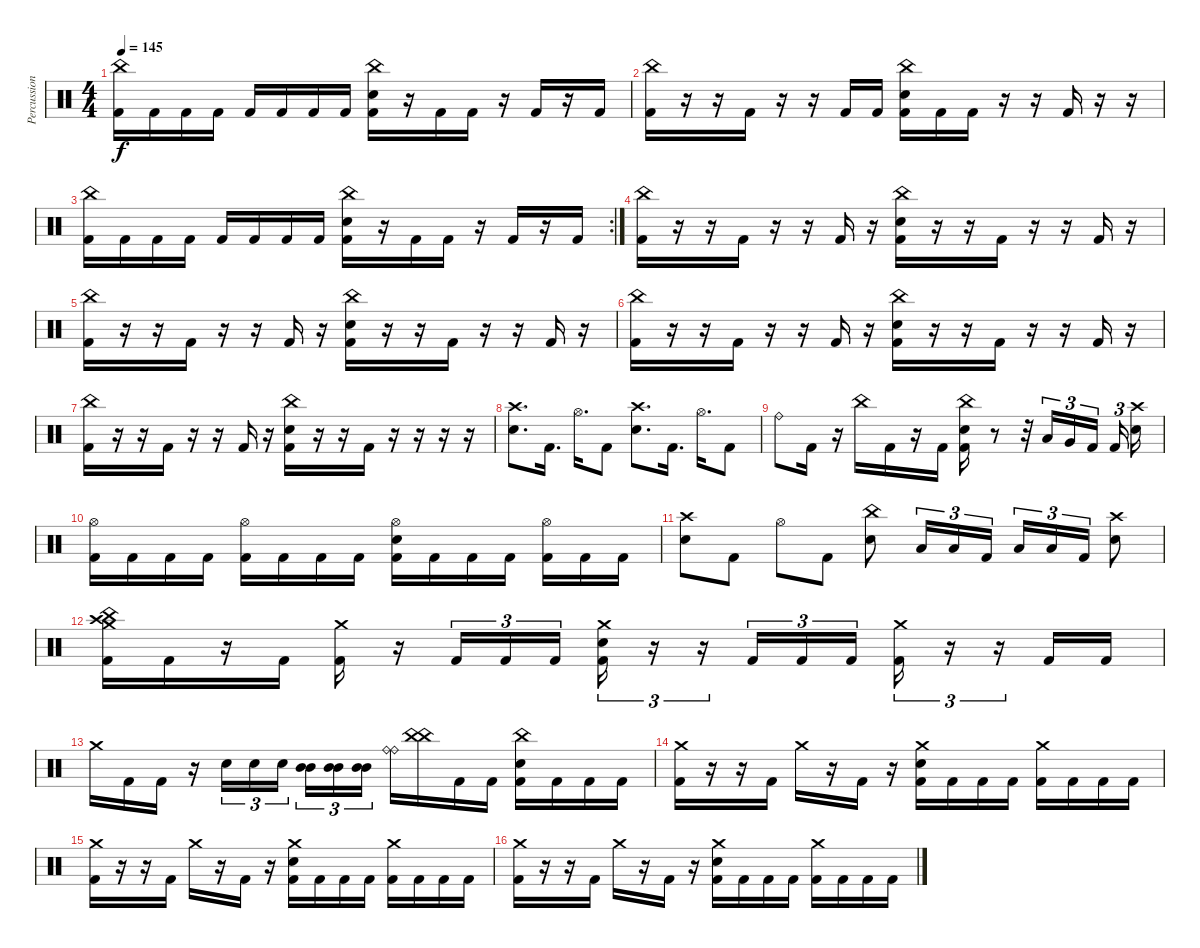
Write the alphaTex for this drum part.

\track ("Percussion" "Percussion") {instrument percussion}
\staff {score}
\articulation defaults
\ts (4 4)
\tempo 145
\clef neutral
\ks c
("China (hit)" "Kick (hit) 2").16{dy f} "Kick (hit) 2".16 "Kick (hit) 2".16 "Kick (hit) 2".16 "Kick (hit) 2".16 "Kick (hit) 2".16 "Kick (hit) 2".16 "Kick (hit) 2".16 ("China (hit)" "Electric Snare (hit)" "Kick (hit) 2").16 r.16 "Kick (hit) 2".16 "Kick (hit) 2".16 r.16 "Kick (hit) 2".16 r.16 "Kick (hit) 2".16 |
("China (hit)" "Kick (hit) 2").16 r.16 r.16 "Kick (hit) 2".16 r.16 r.16 "Kick (hit) 2".16 "Kick (hit) 2".16 ("China (hit)" "Electric Snare (hit)" "Kick (hit) 2").16 "Kick (hit) 2".16 "Kick (hit) 2".16 r.16 r.16 "Kick (hit) 2".16 r.16 r.16 |
\rc 2
("China (hit)" "Kick (hit) 2").16 "Kick (hit) 2".16 "Kick (hit) 2".16 "Kick (hit) 2".16 "Kick (hit) 2".16 "Kick (hit) 2".16 "Kick (hit) 2".16 "Kick (hit) 2".16 ("China (hit)" "Electric Snare (hit)" "Kick (hit) 2").16 r.16 "Kick (hit) 2".16 "Kick (hit) 2".16 r.16 "Kick (hit) 2".16 r.16 "Kick (hit) 2".16 |
("China (hit)" "Kick (hit) 2").16 r.16 r.16 "Kick (hit) 2".16 r.16 r.16 "Kick (hit) 2".16 r.16 ("China (hit)" "Electric Snare (hit)" "Kick (hit) 2").16 r.16 r.16 "Kick (hit) 2".16 r.16 r.16 "Kick (hit) 2".16 r.16 |
("China (hit)" "Kick (hit) 2").16 r.16 r.16 "Kick (hit) 2".16 r.16 r.16 "Kick (hit) 2".16 r.16 ("China (hit)" "Electric Snare (hit)" "Kick (hit) 2").16 r.16 r.16 "Kick (hit) 2".16 r.16 r.16 "Kick (hit) 2".16 r.16 |
("China (hit)" "Kick (hit) 2").16 r.16 r.16 "Kick (hit) 2".16 r.16 r.16 "Kick (hit) 2".16 r.16 ("China (hit)" "Electric Snare (hit)" "Kick (hit) 2").16 r.16 r.16 "Kick (hit) 2".16 r.16 r.16 "Kick (hit) 2".16 r.16 |
("China (hit)" "Kick (hit) 2").16 r.16 r.16 "Kick (hit) 2".16 r.16 r.16 "Kick (hit) 2".16 r.16 ("China (hit)" "Electric Snare (hit)" "Kick (hit) 2").16 r.16 r.16 "Kick (hit) 2".16 r.16 r.16 r.16 r.16 |
("Crash high (hit)" "Electric Snare (hit)").8{d} "Kick (hit) 2".16{d} "Hi-Hat (open)".16{d} "Kick (hit) 2".8 ("Crash high (hit)" "Electric Snare (hit)").8{d} "Kick (hit) 2".16{d} "Hi-Hat (open)".16{d} "Kick (hit) 2".8 |
"Ride (bell)".8 "Kick (hit) 2".16 r.16 "China (hit)".16 "Kick (hit) 2".16 r.16 "Kick (hit) 2".16 ("China (hit)" "Electric Snare (hit)" "Kick (hit) 2").16 r.8 r.32 "Low Tom (hit)".16{tu (3 2)} "Very Low Tom (hit)".16{tu (3 2)} "Kick (hit) 2".16{tu (3 2) beam splitsecondary} "Kick (hit) 2".16{tu (3 2)} ("Crash high (hit)" "Electric Snare (hit)").16 |
("Hi-Hat (open)" "Kick (hit) 2").16 "Kick (hit) 2".16 "Kick (hit) 2".16 "Kick (hit) 2".16 ("Hi-Hat (open)" "Kick (hit) 2").16 "Kick (hit) 2".16 "Kick (hit) 2".16 "Kick (hit) 2".16 ("Hi-Hat (open)" "Electric Snare (hit)" "Kick (hit) 2").16 "Kick (hit) 2".16 "Kick (hit) 2".16 "Kick (hit) 2".16 ("Hi-Hat (open)" "Kick (hit) 2").16 "Kick (hit) 2".16 "Kick (hit) 2".16 |
("Crash high (hit)" "Electric Snare (hit)").8 "Kick (hit) 2".8 "Hi-Hat (open)".8 "Kick (hit) 2".8 ("China (hit)" "Electric Snare (hit)").8 "Low Tom (hit)".16{tu (3 2)} "Low Tom (hit)".16{tu (3 2)} "Kick (hit) 2".16{tu (3 2)} "Low Floor Tom (hit)".16{tu (3 2)} "Low Floor Tom (hit)".16{tu (3 2)} "Kick (hit) 2".16{tu (3 2)} ("Crash high (hit)" "Electric Snare (hit)").8 |
("Crash medium (hit)" "Crash high (hit)" "China (hit)" "Kick (hit) 2").16 "Kick (hit) 2".16 r.16 "Kick (hit) 2".16 ("Crash medium (hit)" "Kick (hit) 2").16 r.16 "Kick (hit) 2".16{tu (3 2)} "Kick (hit) 2".16{tu (3 2)} "Kick (hit) 2".16{tu (3 2)} ("Crash medium (hit)" "Electric Snare (hit)" "Kick (hit) 2").16{tu (3 2)} r.16{tu (3 2)} r.16{tu (3 2)} "Kick (hit) 2".16{tu (3 2)} "Kick (hit) 2".16{tu (3 2)} "Kick (hit) 2".16{tu (3 2)} ("Crash medium (hit)" "Kick (hit) 2").16{tu (3 2)} r.16{tu (3 2)} r.16{tu (3 2)} "Kick (hit) 2".16 "Kick (hit) 2".16 |
"Crash medium (hit)".16 "Kick (hit) 2".16 "Kick (hit) 2".16 r.16 "Electric Snare (hit)".16{tu (3 2)} "Electric Snare (hit)".16{tu (3 2)} "Electric Snare (hit)".16{tu (3 2) beam splitsecondary} ("Mid Tom (hit)" "Mid Tom (hit)").16{tu (3 2)} ("Mid Tom (hit)" "Mid Tom (hit)").16{tu (3 2)} ("Mid Tom (hit)" "Mid Tom (hit)").16{tu (3 2)} ("Ride (bell)" "Ride (bell)").16 ("China (hit)" "China (hit)").16 "Kick (hit) 2".16 "Kick (hit) 2".16 ("China (hit)" "Electric Snare (hit)" "Kick (hit) 2").16 "Kick (hit) 2".16 "Kick (hit) 2".16 "Kick (hit) 2".16 |
("Crash medium (hit)" "Kick (hit) 2").16 r.16 r.16 "Kick (hit) 2".16 "Crash medium (hit)".16 r.16 "Kick (hit) 2".16 r.16 ("Crash medium (hit)" "Electric Snare (hit)" "Kick (hit) 2").16 "Kick (hit) 2".16 "Kick (hit) 2".16 "Kick (hit) 2".16 ("Crash medium (hit)" "Kick (hit) 2").16 "Kick (hit) 2".16 "Kick (hit) 2".16 "Kick (hit) 2".16 |
("Crash medium (hit)" "Kick (hit) 2").16 r.16 r.16 "Kick (hit) 2".16 "Crash medium (hit)".16 r.16 "Kick (hit) 2".16 r.16 ("Crash medium (hit)" "Electric Snare (hit)" "Kick (hit) 2").16 "Kick (hit) 2".16 "Kick (hit) 2".16 "Kick (hit) 2".16 ("Crash medium (hit)" "Kick (hit) 2").16 "Kick (hit) 2".16 "Kick (hit) 2".16 "Kick (hit) 2".16 |
("Crash medium (hit)" "Kick (hit) 2").16 r.16 r.16 "Kick (hit) 2".16 "Crash medium (hit)".16 r.16 "Kick (hit) 2".16 r.16 ("Crash medium (hit)" "Electric Snare (hit)" "Kick (hit) 2").16 "Kick (hit) 2".16 "Kick (hit) 2".16 "Kick (hit) 2".16 ("Crash medium (hit)" "Kick (hit) 2").16 "Kick (hit) 2".16 "Kick (hit) 2".16 "Kick (hit) 2".16
